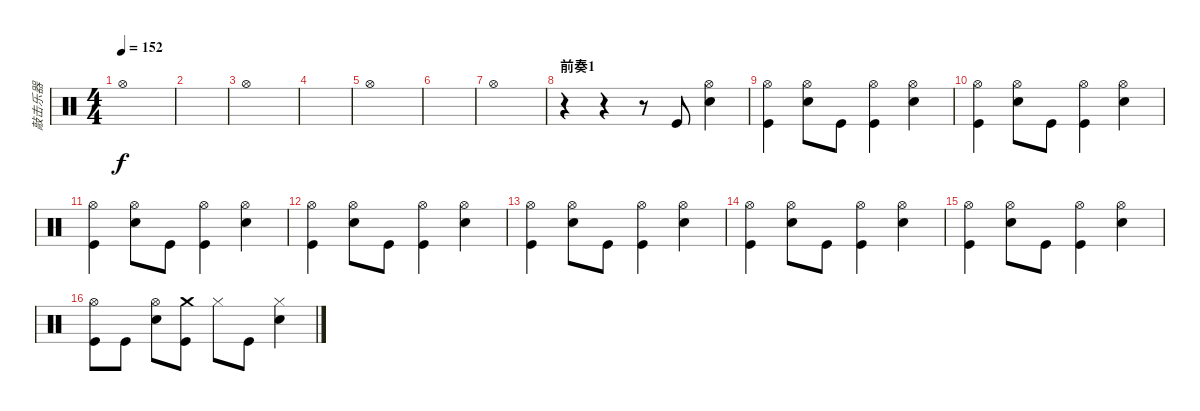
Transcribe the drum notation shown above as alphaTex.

\track ("敲击乐器" "敲击乐器") {instrument percussion}
\staff {score}
\articulation defaults
\ts (4 4)
\tempo 152
\clef neutral
\ks c "Hi-Hat (open)".1{dy f}
|
|
"Hi-Hat (open)".1 |
|
"Hi-Hat (open)".1 |
|
"Hi-Hat (open)".1 |
\section ("" "前奏1")
r.4 r.4 r.8 "Kick (hit)".8 ("Hi-Hat (open)" "Electric Snare (hit)").4 |
("Hi-Hat (open)" "Kick (hit)").4 ("Hi-Hat (open)" "Electric Snare (hit)").8 "Kick (hit)".8 ("Hi-Hat (open)" "Kick (hit)").4 ("Hi-Hat (open)" "Electric Snare (hit)").4 |
("Hi-Hat (open)" "Kick (hit)").4 ("Hi-Hat (open)" "Electric Snare (hit)").8 "Kick (hit)".8 ("Hi-Hat (open)" "Kick (hit)").4 ("Hi-Hat (open)" "Electric Snare (hit)").4 |
("Hi-Hat (open)" "Kick (hit)").4 ("Hi-Hat (open)" "Electric Snare (hit)").8 "Kick (hit)".8 ("Hi-Hat (open)" "Kick (hit)").4 ("Hi-Hat (open)" "Electric Snare (hit)").4 |
("Hi-Hat (open)" "Kick (hit)").4 ("Hi-Hat (open)" "Electric Snare (hit)").8 "Kick (hit)".8 ("Hi-Hat (open)" "Kick (hit)").4 ("Hi-Hat (open)" "Electric Snare (hit)").4 |
("Hi-Hat (open)" "Kick (hit)").4 ("Hi-Hat (open)" "Electric Snare (hit)").8 "Kick (hit)".8 ("Hi-Hat (open)" "Kick (hit)").4 ("Hi-Hat (open)" "Electric Snare (hit)").4 |
("Hi-Hat (open)" "Kick (hit)").4 ("Hi-Hat (open)" "Electric Snare (hit)").8 "Kick (hit)".8 ("Hi-Hat (open)" "Kick (hit)").4 ("Hi-Hat (open)" "Electric Snare (hit)").4 |
("Hi-Hat (open)" "Kick (hit)").4 ("Hi-Hat (open)" "Electric Snare (hit)").8 "Kick (hit)".8 ("Hi-Hat (open)" "Kick (hit)").4 ("Hi-Hat (open)" "Electric Snare (hit)").4 |
("Hi-Hat (open)" "Kick (hit)").8 "Kick (hit)".8 ("Hi-Hat (open)" "Electric Snare (hit)").8 ("Crash medium (hit)" "Kick (hit)").8 "Hi-Hat (closed)".8 "Kick (hit)".8 ("Hi-Hat (closed)" "Snare (hit) 2").4
